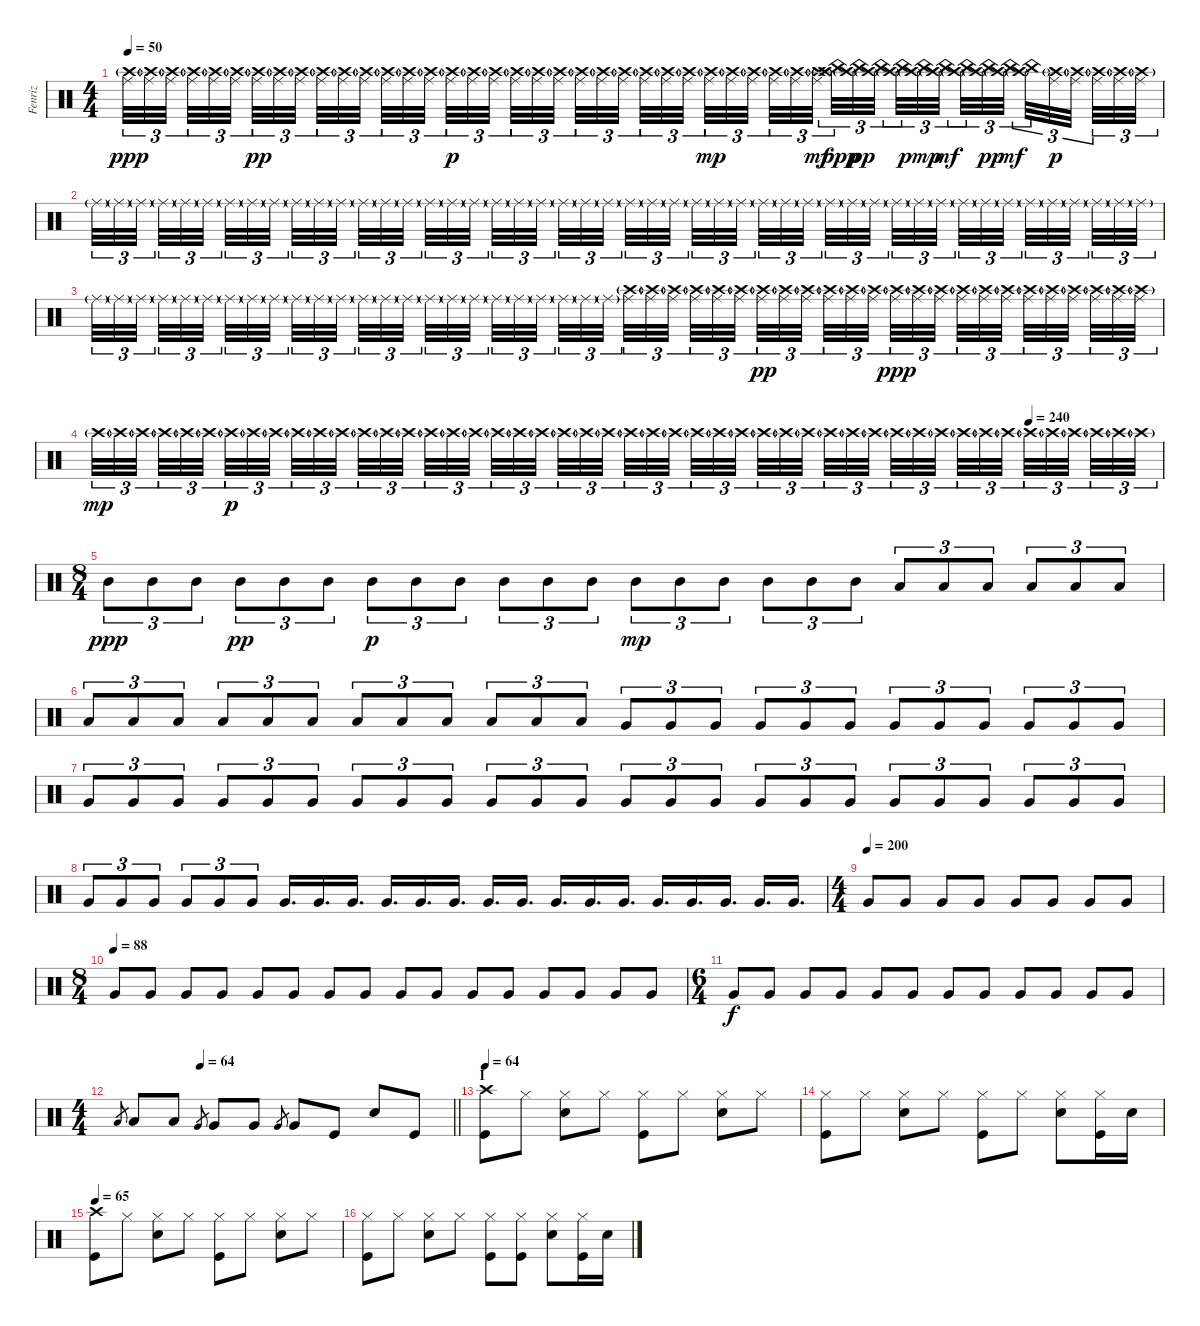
\track ("Fenriz" "Fenriz") {instrument percussion}
\staff {score}
\articulation defaults
\ts (4 4)
\tempo 50
\clef neutral
\ks c
("Crash high (hit)"{g} "Ride (middle)").32{tu (3 2) dy ppp} ("Crash high (hit)"{g} "Ride (middle)").32{tu (3 2)} ("Crash high (hit)"{g} "Ride (middle)").32{tu (3 2) beam splitsecondary} ("Crash high (hit)"{g} "Ride (middle)").32{tu (3 2)} ("Crash high (hit)"{g} "Ride (middle)").32{tu (3 2)} ("Crash high (hit)"{g} "Ride (middle)").32{tu (3 2) beam splitsecondary} ("Crash high (hit)"{g} "Ride (middle)").32{tu (3 2) dy pp} ("Crash high (hit)"{g} "Ride (middle)").32{tu (3 2)} ("Crash high (hit)"{g} "Ride (middle)").32{tu (3 2) beam splitsecondary} ("Crash high (hit)"{g} "Ride (middle)").32{tu (3 2)} ("Crash high (hit)"{g} "Ride (middle)").32{tu (3 2)} ("Crash high (hit)"{g} "Ride (middle)").32{tu (3 2)} ("Crash high (hit)"{g} "Ride (middle)").32{tu (3 2)} ("Crash high (hit)"{g} "Ride (middle)").32{tu (3 2)} ("Crash high (hit)"{g} "Ride (middle)").32{tu (3 2) beam splitsecondary} ("Crash high (hit)"{g} "Ride (middle)").32{tu (3 2) dy p} ("Crash high (hit)"{g} "Ride (middle)").32{tu (3 2)} ("Crash high (hit)"{g} "Ride (middle)").32{tu (3 2) beam splitsecondary} ("Crash high (hit)"{g} "Ride (middle)").32{tu (3 2)} ("Crash high (hit)"{g} "Ride (middle)").32{tu (3 2)} ("Crash high (hit)"{g} "Ride (middle)").32{tu (3 2) beam splitsecondary} ("Crash high (hit)"{g} "Ride (middle)").32{tu (3 2)} ("Crash high (hit)"{g} "Ride (middle)").32{tu (3 2)} ("Crash high (hit)"{g} "Ride (middle)").32{tu (3 2)} ("Crash high (hit)"{g} "Ride (middle)").32{tu (3 2)} ("Crash high (hit)"{g} "Ride (middle)").32{tu (3 2)} ("Crash high (hit)"{g} "Ride (middle)").32{tu (3 2) beam splitsecondary} ("Crash high (hit)"{g} "Ride (middle)").32{tu (3 2) dy mp} ("Crash high (hit)"{g} "Ride (middle)").32{tu (3 2)} ("Crash high (hit)"{g} "Ride (middle)").32{tu (3 2) beam splitsecondary} ("Crash high (hit)"{g} "Ride (middle)").32{tu (3 2)} ("Crash high (hit)"{g} "Ride (middle)").32{tu (3 2)} ("Crash high (hit)"{g} "Ride (middle)").32{tu (3 2) dy mf beam splitsecondary} ("Crash high (hit)"{g} "China (hit)").32{tu (3 2) dy ppp} ("Crash high (hit)"{g} "China (hit)").32{tu (3 2) dy pp} ("Crash high (hit)"{g} "China (hit)").32{tu (3 2)} ("Crash high (hit)"{g} "China (hit)").32{tu (3 2) dy p} ("Crash high (hit)"{g} "China (hit)").32{tu (3 2) dy mp} ("Crash high (hit)"{g} "China (hit)").32{tu (3 2) dy mf beam splitsecondary} ("Crash high (hit)"{g} "China (hit)").32{tu (3 2)} ("Crash high (hit)"{g} "China (hit)").32{tu (3 2) dy pp} ("Crash high (hit)"{g} "China (hit)").32{tu (3 2) dy mf beam splitsecondary} ("Crash high (hit)"{g} "China (hit)").32{tu (3 2)} ("Crash high (hit)"{g} "Ride (middle)").32{tu (3 2) dy p} ("Crash high (hit)"{g} "Ride (middle)").32{tu (3 2) beam splitsecondary} ("Crash high (hit)"{g} "Ride (middle)").32{tu (3 2)} ("Crash high (hit)"{g} "Ride (middle)").32{tu (3 2)} ("Crash high (hit)"{g} "Ride (middle)").32{tu (3 2)} |
"Ride (middle)"{g}.32{tu (3 2)} "Ride (middle)"{g}.32{tu (3 2)} "Ride (middle)"{g}.32{tu (3 2) beam splitsecondary} "Ride (middle)"{g}.32{tu (3 2)} "Ride (middle)"{g}.32{tu (3 2)} "Ride (middle)"{g}.32{tu (3 2) beam splitsecondary} "Ride (middle)"{g}.32{tu (3 2)} "Ride (middle)"{g}.32{tu (3 2)} "Ride (middle)"{g}.32{tu (3 2) beam splitsecondary} "Ride (middle)"{g}.32{tu (3 2)} "Ride (middle)"{g}.32{tu (3 2)} "Ride (middle)"{g}.32{tu (3 2)} "Ride (middle)"{g}.32{tu (3 2)} "Ride (middle)"{g}.32{tu (3 2)} "Ride (middle)"{g}.32{tu (3 2) beam splitsecondary} "Ride (middle)"{g}.32{tu (3 2)} "Ride (middle)"{g}.32{tu (3 2)} "Ride (middle)"{g}.32{tu (3 2) beam splitsecondary} "Ride (middle)"{g}.32{tu (3 2)} "Ride (middle)"{g}.32{tu (3 2)} "Ride (middle)"{g}.32{tu (3 2) beam splitsecondary} "Ride (middle)"{g}.32{tu (3 2)} "Ride (middle)"{g}.32{tu (3 2)} "Ride (middle)"{g}.32{tu (3 2)} "Ride (middle)"{g}.32{tu (3 2)} "Ride (middle)"{g}.32{tu (3 2)} "Ride (middle)"{g}.32{tu (3 2) beam splitsecondary} "Ride (middle)"{g}.32{tu (3 2)} "Ride (middle)"{g}.32{tu (3 2)} "Ride (middle)"{g}.32{tu (3 2) beam splitsecondary} "Ride (middle)"{g}.32{tu (3 2)} "Ride (middle)"{g}.32{tu (3 2)} "Ride (middle)"{g}.32{tu (3 2) beam splitsecondary} "Ride (middle)"{g}.32{tu (3 2)} "Ride (middle)"{g}.32{tu (3 2)} "Ride (middle)"{g}.32{tu (3 2)} "Ride (middle)"{g}.32{tu (3 2)} "Ride (middle)"{g}.32{tu (3 2)} "Ride (middle)"{g}.32{tu (3 2) beam splitsecondary} "Ride (middle)"{g}.32{tu (3 2)} "Ride (middle)"{g}.32{tu (3 2)} "Ride (middle)"{g}.32{tu (3 2) beam splitsecondary} "Ride (middle)"{g}.32{tu (3 2)} "Ride (middle)"{g}.32{tu (3 2)} "Ride (middle)"{g}.32{tu (3 2) beam splitsecondary} "Ride (middle)"{g}.32{tu (3 2)} "Ride (middle)"{g}.32{tu (3 2)} "Ride (middle)"{g}.32{tu (3 2)} |
"Ride (middle)"{g}.32{tu (3 2)} "Ride (middle)"{g}.32{tu (3 2)} "Ride (middle)"{g}.32{tu (3 2) beam splitsecondary} "Ride (middle)"{g}.32{tu (3 2)} "Ride (middle)"{g}.32{tu (3 2)} "Ride (middle)"{g}.32{tu (3 2) beam splitsecondary} "Ride (middle)"{g}.32{tu (3 2)} "Ride (middle)"{g}.32{tu (3 2)} "Ride (middle)"{g}.32{tu (3 2) beam splitsecondary} "Ride (middle)"{g}.32{tu (3 2)} "Ride (middle)"{g}.32{tu (3 2)} "Ride (middle)"{g}.32{tu (3 2)} "Ride (middle)"{g}.32{tu (3 2)} "Ride (middle)"{g}.32{tu (3 2)} "Ride (middle)"{g}.32{tu (3 2) beam splitsecondary} "Ride (middle)"{g}.32{tu (3 2)} "Ride (middle)"{g}.32{tu (3 2)} "Ride (middle)"{g}.32{tu (3 2) beam splitsecondary} "Ride (middle)"{g}.32{tu (3 2)} "Ride (middle)"{g}.32{tu (3 2)} "Ride (middle)"{g}.32{tu (3 2) beam splitsecondary} "Ride (middle)"{g}.32{tu (3 2)} "Ride (middle)"{g}.32{tu (3 2)} "Ride (middle)"{g}.32{tu (3 2)} ("Crash high (hit)"{g} "Ride (middle)").32{tu (3 2)} ("Crash high (hit)"{g} "Ride (middle)").32{tu (3 2)} ("Crash high (hit)"{g} "Ride (middle)").32{tu (3 2) beam splitsecondary} ("Crash high (hit)"{g} "Ride (middle)").32{tu (3 2)} ("Crash high (hit)"{g} "Ride (middle)").32{tu (3 2)} ("Crash high (hit)"{g} "Ride (middle)").32{tu (3 2) beam splitsecondary} ("Crash high (hit)"{g} "Ride (middle)").32{tu (3 2) dy pp} ("Crash high (hit)"{g} "Ride (middle)").32{tu (3 2)} ("Crash high (hit)"{g} "Ride (middle)").32{tu (3 2) beam splitsecondary} ("Crash high (hit)"{g} "Ride (middle)").32{tu (3 2)} ("Crash high (hit)"{g} "Ride (middle)").32{tu (3 2)} ("Crash high (hit)"{g} "Ride (middle)").32{tu (3 2)} ("Crash high (hit)"{g} "Ride (middle)").32{tu (3 2) dy ppp} ("Crash high (hit)"{g} "Ride (middle)").32{tu (3 2)} ("Crash high (hit)"{g} "Ride (middle)").32{tu (3 2) beam splitsecondary} ("Crash high (hit)"{g} "Ride (middle)").32{tu (3 2)} ("Crash high (hit)"{g} "Ride (middle)").32{tu (3 2)} ("Crash high (hit)"{g} "Ride (middle)").32{tu (3 2) beam splitsecondary} ("Crash high (hit)"{g} "Ride (middle)").32{tu (3 2)} ("Crash high (hit)"{g} "Ride (middle)").32{tu (3 2)} ("Crash high (hit)"{g} "Ride (middle)").32{tu (3 2) beam splitsecondary} ("Crash high (hit)"{g} "Ride (middle)").32{tu (3 2)} ("Crash high (hit)"{g} "Ride (middle)").32{tu (3 2)} ("Crash high (hit)"{g} "Ride (middle)").32{tu (3 2)} |
\tempo (240 0.875)
"Crash high (hit)"{g}.32{tu (3 2) dy mp} "Crash high (hit)"{g}.32{tu (3 2)} "Crash high (hit)"{g}.32{tu (3 2) beam splitsecondary} "Crash high (hit)"{g}.32{tu (3 2)} "Crash high (hit)"{g}.32{tu (3 2)} "Crash high (hit)"{g}.32{tu (3 2) beam splitsecondary} "Crash high (hit)"{g}.32{tu (3 2) dy p} "Crash high (hit)"{g}.32{tu (3 2)} "Crash high (hit)"{g}.32{tu (3 2) beam splitsecondary} "Crash high (hit)"{g}.32{tu (3 2)} "Crash high (hit)"{g}.32{tu (3 2)} "Crash high (hit)"{g}.32{tu (3 2)} "Crash high (hit)"{g}.32{tu (3 2)} "Crash high (hit)"{g}.32{tu (3 2)} "Crash high (hit)"{g}.32{tu (3 2) beam splitsecondary} "Crash high (hit)"{g}.32{tu (3 2)} "Crash high (hit)"{g}.32{tu (3 2)} "Crash high (hit)"{g}.32{tu (3 2) beam splitsecondary} "Crash high (hit)"{g}.32{tu (3 2)} "Crash high (hit)"{g}.32{tu (3 2)} "Crash high (hit)"{g}.32{tu (3 2) beam splitsecondary} "Crash high (hit)"{g}.32{tu (3 2)} "Crash high (hit)"{g}.32{tu (3 2)} "Crash high (hit)"{g}.32{tu (3 2)} "Crash high (hit)"{g}.32{tu (3 2)} "Crash high (hit)"{g}.32{tu (3 2)} "Crash high (hit)"{g}.32{tu (3 2) beam splitsecondary} "Crash high (hit)"{g}.32{tu (3 2)} "Crash high (hit)"{g}.32{tu (3 2)} "Crash high (hit)"{g}.32{tu (3 2) beam splitsecondary} "Crash high (hit)"{g}.32{tu (3 2)} "Crash high (hit)"{g}.32{tu (3 2)} "Crash high (hit)"{g}.32{tu (3 2) beam splitsecondary} "Crash high (hit)"{g}.32{tu (3 2)} "Crash high (hit)"{g}.32{tu (3 2)} "Crash high (hit)"{g}.32{tu (3 2)} "Crash high (hit)"{g}.32{tu (3 2)} "Crash high (hit)"{g}.32{tu (3 2)} "Crash high (hit)"{g}.32{tu (3 2) beam splitsecondary} "Crash high (hit)"{g}.32{tu (3 2)} "Crash high (hit)"{g}.32{tu (3 2)} "Crash high (hit)"{g}.32{tu (3 2) beam splitsecondary} "Crash high (hit)"{g}.32{tu (3 2)} "Crash high (hit)"{g}.32{tu (3 2)} "Crash high (hit)"{g}.32{tu (3 2) beam splitsecondary} "Crash high (hit)"{g}.32{tu (3 2)} "Crash high (hit)"{g}.32{tu (3 2)} "Crash high (hit)"{g}.32{tu (3 2)} |
\ts (8 4)
"Mid Tom (hit)".8{tu (3 2) dy ppp} "Mid Tom (hit)".8{tu (3 2)} "Mid Tom (hit)".8{tu (3 2)} "Mid Tom (hit)".8{tu (3 2) dy pp} "Mid Tom (hit)".8{tu (3 2)} "Mid Tom (hit)".8{tu (3 2)} "Mid Tom (hit)".8{tu (3 2) dy p} "Mid Tom (hit)".8{tu (3 2)} "Mid Tom (hit)".8{tu (3 2)} "Mid Tom (hit)".8{tu (3 2)} "Mid Tom (hit)".8{tu (3 2)} "Mid Tom (hit)".8{tu (3 2)} "Mid Tom (hit)".8{tu (3 2) dy mp} "Mid Tom (hit)".8{tu (3 2)} "Mid Tom (hit)".8{tu (3 2)} "Mid Tom (hit)".8{tu (3 2)} "Mid Tom (hit)".8{tu (3 2)} "Mid Tom (hit)".8{tu (3 2)} "Low Tom (hit)".8{tu (3 2)} "Low Tom (hit)".8{tu (3 2)} "Low Tom (hit)".8{tu (3 2)} "Low Tom (hit)".8{tu (3 2)} "Low Tom (hit)".8{tu (3 2)} "Low Tom (hit)".8{tu (3 2)} |
"Low Tom (hit)".8{tu (3 2)} "Low Tom (hit)".8{tu (3 2)} "Low Tom (hit)".8{tu (3 2)} "Low Tom (hit)".8{tu (3 2)} "Low Tom (hit)".8{tu (3 2)} "Low Tom (hit)".8{tu (3 2)} "Low Tom (hit)".8{tu (3 2)} "Low Tom (hit)".8{tu (3 2)} "Low Tom (hit)".8{tu (3 2)} "Low Tom (hit)".8{tu (3 2)} "Low Tom (hit)".8{tu (3 2)} "Low Tom (hit)".8{tu (3 2)} "Very Low Tom (hit)".8{tu (3 2)} "Very Low Tom (hit)".8{tu (3 2)} "Very Low Tom (hit)".8{tu (3 2)} "Very Low Tom (hit)".8{tu (3 2)} "Very Low Tom (hit)".8{tu (3 2)} "Very Low Tom (hit)".8{tu (3 2)} "Very Low Tom (hit)".8{tu (3 2)} "Very Low Tom (hit)".8{tu (3 2)} "Very Low Tom (hit)".8{tu (3 2)} "Very Low Tom (hit)".8{tu (3 2)} "Very Low Tom (hit)".8{tu (3 2)} "Very Low Tom (hit)".8{tu (3 2)} |
"Very Low Tom (hit)".8{tu (3 2)} "Very Low Tom (hit)".8{tu (3 2)} "Very Low Tom (hit)".8{tu (3 2)} "Very Low Tom (hit)".8{tu (3 2)} "Very Low Tom (hit)".8{tu (3 2)} "Very Low Tom (hit)".8{tu (3 2)} "Very Low Tom (hit)".8{tu (3 2)} "Very Low Tom (hit)".8{tu (3 2)} "Very Low Tom (hit)".8{tu (3 2)} "Very Low Tom (hit)".8{tu (3 2)} "Very Low Tom (hit)".8{tu (3 2)} "Very Low Tom (hit)".8{tu (3 2)} "Very Low Tom (hit)".8{tu (3 2)} "Very Low Tom (hit)".8{tu (3 2)} "Very Low Tom (hit)".8{tu (3 2)} "Very Low Tom (hit)".8{tu (3 2)} "Very Low Tom (hit)".8{tu (3 2)} "Very Low Tom (hit)".8{tu (3 2)} "Very Low Tom (hit)".8{tu (3 2)} "Very Low Tom (hit)".8{tu (3 2)} "Very Low Tom (hit)".8{tu (3 2)} "Very Low Tom (hit)".8{tu (3 2)} "Very Low Tom (hit)".8{tu (3 2)} "Very Low Tom (hit)".8{tu (3 2)} |
"Very Low Tom (hit)".8{tu (3 2)} "Very Low Tom (hit)".8{tu (3 2)} "Very Low Tom (hit)".8{tu (3 2)} "Very Low Tom (hit)".8{tu (3 2)} "Very Low Tom (hit)".8{tu (3 2)} "Very Low Tom (hit)".8{tu (3 2)} "Very Low Tom (hit)".16{d} "Very Low Tom (hit)".16{d} "Very Low Tom (hit)".16{d} "Very Low Tom (hit)".16{d} "Very Low Tom (hit)".16{d} "Very Low Tom (hit)".16{d} "Very Low Tom (hit)".16{d} "Very Low Tom (hit)".16{d} "Very Low Tom (hit)".16{d} "Very Low Tom (hit)".16{d} "Very Low Tom (hit)".16{d} "Very Low Tom (hit)".16{d} "Very Low Tom (hit)".16{d} "Very Low Tom (hit)".16{d} "Very Low Tom (hit)".16{d} "Very Low Tom (hit)".16{d} |
\ts (4 4)
\tempo (200)
"Very Low Tom (hit)".8 "Very Low Tom (hit)".8 "Very Low Tom (hit)".8 "Very Low Tom (hit)".8 "Very Low Tom (hit)".8 "Very Low Tom (hit)".8 "Very Low Tom (hit)".8 "Very Low Tom (hit)".8 |
\ts (8 4)
\tempo (88)
"Very Low Tom (hit)".8 "Very Low Tom (hit)".8 "Very Low Tom (hit)".8 "Very Low Tom (hit)".8 "Very Low Tom (hit)".8 "Very Low Tom (hit)".8 "Very Low Tom (hit)".8 "Very Low Tom (hit)".8 "Very Low Tom (hit)".8 "Very Low Tom (hit)".8 "Very Low Tom (hit)".8 "Very Low Tom (hit)".8 "Very Low Tom (hit)".8 "Very Low Tom (hit)".8 "Very Low Tom (hit)".8 "Very Low Tom (hit)".8 |
\ts (6 4)
"Very Low Tom (hit)".8{dy f} "Very Low Tom (hit)".8 "Very Low Tom (hit)".8 "Very Low Tom (hit)".8 "Very Low Tom (hit)".8 "Very Low Tom (hit)".8 "Very Low Tom (hit)".8 "Very Low Tom (hit)".8 "Very Low Tom (hit)".8 "Very Low Tom (hit)".8 "Very Low Tom (hit)".8 "Very Low Tom (hit)".8 |
\ts (4 4)
\tempo (64 0.25)
\barLineRight lightlight "Low Tom (hit)".8{gr} "Low Tom (hit)".8 "Low Tom (hit)".8 "Very Low Tom (hit)".8{gr} "Very Low Tom (hit)".8 "Very Low Tom (hit)".8 "Very Low Tom (hit)".8{gr} "Very Low Tom (hit)".8 "Kick (hit)".8 "Snare (hit) 2".8 "Kick (hit)".8
|
\section ("" "I")
\tempo 64
("Kick (hit)" "Crash high (hit)").8 "Hi-Hat (closed)".8 ("Snare (hit) 2" "Hi-Hat (closed)").8 "Hi-Hat (closed)".8 ("Kick (hit)" "Hi-Hat (closed)").8 "Hi-Hat (closed)".8 ("Snare (hit) 2" "Hi-Hat (closed)").8 "Hi-Hat (closed)".8 |
("Kick (hit)" "Hi-Hat (closed)").8 "Hi-Hat (closed)".8 ("Snare (hit) 2" "Hi-Hat (closed)").8 "Hi-Hat (closed)".8 ("Kick (hit)" "Hi-Hat (closed)").8 "Hi-Hat (closed)".8 ("Snare (hit) 2" "Hi-Hat (closed)").8 ("Kick (hit)" "Hi-Hat (closed)").16 "Snare (hit) 2".16 |
\tempo 65
("Kick (hit)" "Crash high (hit)").8 "Hi-Hat (closed)".8 ("Snare (hit) 2" "Hi-Hat (closed)").8 "Hi-Hat (closed)".8 ("Kick (hit)" "Hi-Hat (closed)").8 "Hi-Hat (closed)".8 ("Snare (hit) 2" "Hi-Hat (closed)").8 "Hi-Hat (closed)".8 |
("Kick (hit)" "Hi-Hat (closed)").8 "Hi-Hat (closed)".8 ("Snare (hit) 2" "Hi-Hat (closed)").8 "Hi-Hat (closed)".8 ("Kick (hit)" "Hi-Hat (closed)").8 ("Kick (hit)" "Hi-Hat (closed)").8 ("Snare (hit) 2" "Hi-Hat (closed)").8 ("Kick (hit)" "Hi-Hat (closed)").16 "Snare (hit) 2".16
